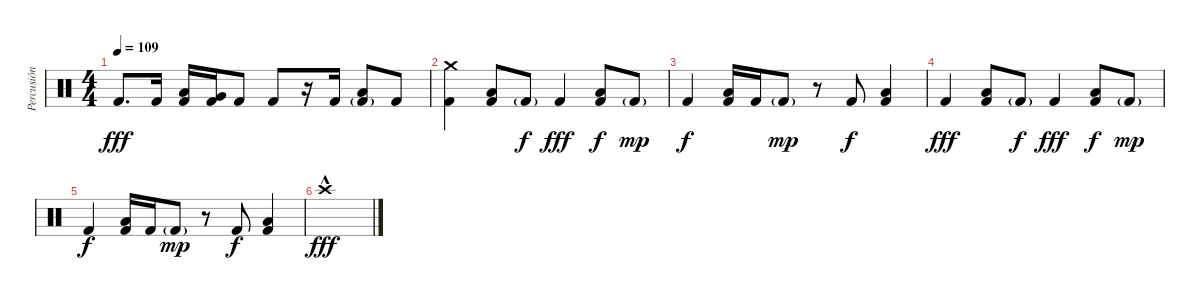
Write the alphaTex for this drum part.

\track ("Percusión" "Percusión") {instrument percussion}
\staff {score}
\articulation defaults
\ts (4 4)
\tempo 109
\clef neutral
\ks c "Kick (hit) 2".8{d dy fff} "Kick (hit) 2".16
("Low Tom (hit)" "Kick (hit) 2").16 ("Very Low Tom (hit)" "Kick (hit) 2").16 "Kick (hit) 2".8 "Kick (hit) 2".8 r.16 "Kick (hit) 2".16 ("Low Tom (hit)" "Kick (hit) 2"{g}).8 "Kick (hit) 2".8 |
("Crash medium (hit)" "Kick (hit) 2").4 ("Low Tom (hit)" "Kick (hit) 2").8 "Kick (hit) 2"{g}.8{dy f} "Kick (hit) 2".4{dy fff} ("Low Tom (hit)" "Kick (hit) 2").8{dy f} "Kick (hit) 2"{g}.8{dy mp} |
"Kick (hit) 2".4{dy f} ("Low Tom (hit)" "Kick (hit) 2").16 "Kick (hit) 2".16 "Kick (hit) 2"{g}.8{dy mp} r.8 "Kick (hit) 2".8{dy f} ("Low Tom (hit)" "Kick (hit) 2").4 |
"Kick (hit) 2".4{dy fff} ("Low Tom (hit)" "Kick (hit) 2").8 "Kick (hit) 2"{g}.8{dy f} "Kick (hit) 2".4{dy fff} ("Low Tom (hit)" "Kick (hit) 2").8{dy f} "Kick (hit) 2"{g}.8{dy mp} |
"Kick (hit) 2".4{dy f} ("Low Tom (hit)" "Kick (hit) 2").16 "Kick (hit) 2".16 "Kick (hit) 2"{g}.8{dy mp} r.8 "Kick (hit) 2".8{dy f} ("Low Tom (hit)" "Kick (hit) 2").4 |
"Crash high (hit)"{hac}.1{dy fff}
